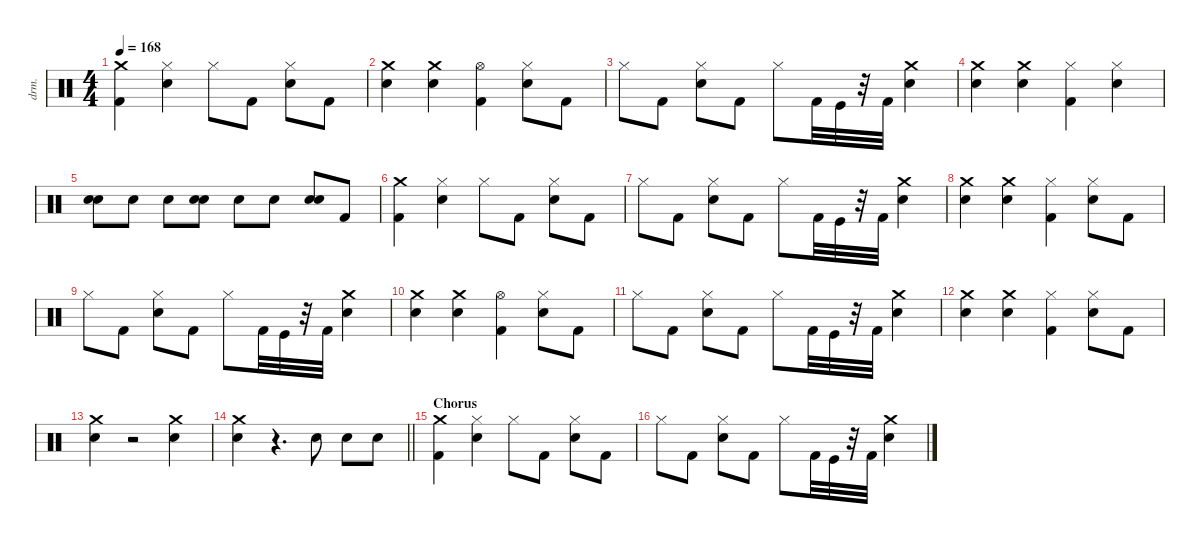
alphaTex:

\defaultSystemsLayout 4
\hideDynamics
\bracketExtendMode nobrackets
\otherSystemsTrackNameOrientation horizontal
\track ("Drums" "drm.") {instrument percussion}
\staff {score}
\articulation defaults
\ts (4 4)
\tempo 168
\clef neutral
\ks c
("Kick (hit) 2" "Crash medium (hit)").4{dy fff} ("Hi-Hat (closed)" "Snare (hit) 2").4 "Hi-Hat (closed)".8 "Kick (hit) 2".8 ("Snare (hit) 2" "Hi-Hat (closed)").8 "Kick (hit) 2".8 |
("Crash medium (hit)" "Snare (hit) 2").4 ("Crash medium (hit)" "Snare (hit) 2").4 ("Hi-Hat (open)" "Kick (hit) 2").4 ("Snare (hit) 2" "Hi-Hat (closed)").8 "Kick (hit) 2".8 |
"Hi-Hat (closed)".8 "Kick (hit) 2".8 ("Snare (hit) 2" "Hi-Hat (closed)").8 "Kick (hit) 2".8 "Hi-Hat (closed)".8 "Kick (hit) 2".32 "Kick (hit)".32 r.32 "Kick (hit) 2".32 ("Crash medium (hit)" "Snare (hit) 2").4 |
("Snare (hit) 2" "Crash medium (hit)").4 ("Snare (hit) 2" "Crash medium (hit)").4 ("Kick (hit) 2" "Hi-Hat (closed)").4 ("Hi-Hat (closed)" "Snare (hit) 2").4 |
("Snare (hit) 2" "Snare (hit) 2").8{dy f} "Snare (hit) 2".8{dy fff} "Snare (hit) 2".8 ("Snare (hit) 2" "Snare (hit) 2").8{dy f} "Snare (hit) 2".8{dy fff} "Snare (hit) 2".8 ("Snare (hit) 2" "Snare (hit) 2").8{dy f} "Kick (hit) 2".8{dy fff} |
("Kick (hit) 2" "Crash medium (hit)").4 ("Hi-Hat (closed)" "Snare (hit) 2").4 "Hi-Hat (closed)".8 "Kick (hit) 2".8 ("Snare (hit) 2" "Hi-Hat (closed)").8 "Kick (hit) 2".8 |
"Hi-Hat (closed)".8 "Kick (hit) 2".8 ("Snare (hit) 2" "Hi-Hat (closed)").8 "Kick (hit) 2".8 "Hi-Hat (closed)".8 "Kick (hit) 2".32 "Kick (hit)".32 r.32 "Kick (hit) 2".32 ("Crash medium (hit)" "Snare (hit) 2").4 |
("Crash medium (hit)" "Snare (hit) 2").4 ("Crash medium (hit)" "Snare (hit) 2").4 ("Hi-Hat (closed)" "Kick (hit) 2").4 ("Snare (hit) 2" "Hi-Hat (closed)").8 "Kick (hit) 2".8 |
"Hi-Hat (closed)".8 "Kick (hit) 2".8 ("Snare (hit) 2" "Hi-Hat (closed)").8 "Kick (hit) 2".8 "Hi-Hat (closed)".8 "Kick (hit) 2".32 "Kick (hit)".32 r.32 "Kick (hit) 2".32 ("Crash medium (hit)" "Snare (hit) 2").4 |
("Crash medium (hit)" "Snare (hit) 2").4 ("Crash medium (hit)" "Snare (hit) 2").4 ("Hi-Hat (open)" "Kick (hit) 2").4 ("Snare (hit) 2" "Hi-Hat (closed)").8 "Kick (hit) 2".8 |
"Hi-Hat (closed)".8 "Kick (hit) 2".8 ("Snare (hit) 2" "Hi-Hat (closed)").8 "Kick (hit) 2".8 "Hi-Hat (closed)".8 "Kick (hit) 2".32 "Kick (hit)".32 r.32 "Kick (hit) 2".32 ("Crash medium (hit)" "Snare (hit) 2").4 |
("Crash medium (hit)" "Snare (hit) 2").4 ("Crash medium (hit)" "Snare (hit) 2").4 ("Hi-Hat (closed)" "Kick (hit) 2").4 ("Snare (hit) 2" "Hi-Hat (closed)").8 "Kick (hit) 2".8 |
("Snare (hit) 2" "Crash medium (hit)").4 r.2 ("Crash medium (hit)" "Snare (hit) 2").4 |
\barLineRight lightlight
("Snare (hit) 2" "Crash medium (hit)").4 r.4{d} "Snare (hit) 2".8 "Snare (hit) 2".8 "Snare (hit) 2".8 |
\section ("" "Chorus")
("Kick (hit) 2" "Crash medium (hit)").4 ("Hi-Hat (closed)" "Snare (hit) 2").4 "Hi-Hat (closed)".8 "Kick (hit) 2".8 ("Snare (hit) 2" "Hi-Hat (closed)").8 "Kick (hit) 2".8 |
"Hi-Hat (closed)".8 "Kick (hit) 2".8 ("Snare (hit) 2" "Hi-Hat (closed)").8 "Kick (hit) 2".8 "Hi-Hat (closed)".8 "Kick (hit) 2".32 "Kick (hit)".32 r.32 "Kick (hit) 2".32 ("Crash medium (hit)" "Snare (hit) 2").4
